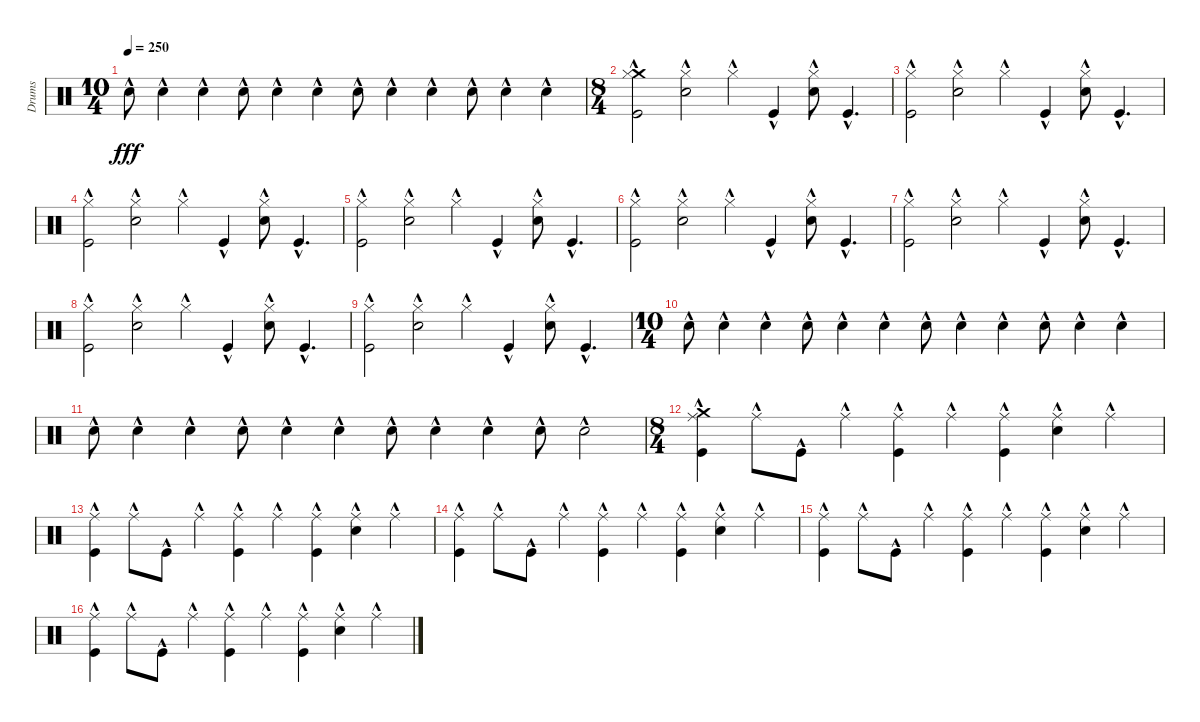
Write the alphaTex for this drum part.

\track ("Drums" "Drums") {instrument percussion}
\staff {score}
\articulation defaults
\ts (10 4)
\tempo 250
\clef neutral
\ks c "Snare (hit) 2"{hac}.8{dy fff} "Snare (hit) 2"{hac}.4 "Snare (hit) 2"{hac}.4 "Snare (hit) 2"{hac}.8 "Snare (hit) 2"{hac}.4 "Snare (hit) 2"{hac}.4 "Snare (hit) 2"{hac}.8 "Snare (hit) 2"{hac}.4 "Snare (hit) 2"{hac}.4 "Snare (hit) 2"{hac}.8 "Snare (hit) 2"{hac}.4 "Snare (hit) 2"{hac}.4
|
\ts (8 4)
("Crash medium (hit)"{hac} "Hi-Hat (closed)"{hac} "Kick (hit)"{hac}).2 ("Hi-Hat (closed)"{hac} "Snare (hit) 2"{hac}).2 "Hi-Hat (closed)"{hac}.4 "Kick (hit)"{hac}.4 ("Hi-Hat (closed)"{hac} "Snare (hit) 2"{hac}).8 "Kick (hit)"{hac}.4{d} |
("Hi-Hat (closed)"{hac} "Kick (hit)"{hac}).2 ("Hi-Hat (closed)"{hac} "Snare (hit) 2"{hac}).2 "Hi-Hat (closed)"{hac}.4 "Kick (hit)"{hac}.4 ("Hi-Hat (closed)"{hac} "Snare (hit) 2"{hac}).8 "Kick (hit)"{hac}.4{d} |
("Hi-Hat (closed)"{hac} "Kick (hit)"{hac}).2 ("Hi-Hat (closed)"{hac} "Snare (hit) 2"{hac}).2 "Hi-Hat (closed)"{hac}.4 "Kick (hit)"{hac}.4 ("Hi-Hat (closed)"{hac} "Snare (hit) 2"{hac}).8 "Kick (hit)"{hac}.4{d} |
("Hi-Hat (closed)"{hac} "Kick (hit)"{hac}).2 ("Hi-Hat (closed)"{hac} "Snare (hit) 2"{hac}).2 "Hi-Hat (closed)"{hac}.4 "Kick (hit)"{hac}.4 ("Hi-Hat (closed)"{hac} "Snare (hit) 2"{hac}).8 "Kick (hit)"{hac}.4{d} |
("Hi-Hat (closed)"{hac} "Kick (hit)"{hac}).2 ("Hi-Hat (closed)"{hac} "Snare (hit) 2"{hac}).2 "Hi-Hat (closed)"{hac}.4 "Kick (hit)"{hac}.4 ("Hi-Hat (closed)"{hac} "Snare (hit) 2"{hac}).8 "Kick (hit)"{hac}.4{d} |
("Hi-Hat (closed)"{hac} "Kick (hit)"{hac}).2 ("Hi-Hat (closed)"{hac} "Snare (hit) 2"{hac}).2 "Hi-Hat (closed)"{hac}.4 "Kick (hit)"{hac}.4 ("Hi-Hat (closed)"{hac} "Snare (hit) 2"{hac}).8 "Kick (hit)"{hac}.4{d} |
("Hi-Hat (closed)"{hac} "Kick (hit)"{hac}).2 ("Hi-Hat (closed)"{hac} "Snare (hit) 2"{hac}).2 "Hi-Hat (closed)"{hac}.4 "Kick (hit)"{hac}.4 ("Hi-Hat (closed)"{hac} "Snare (hit) 2"{hac}).8 "Kick (hit)"{hac}.4{d} |
("Hi-Hat (closed)"{hac} "Kick (hit)"{hac}).2 ("Hi-Hat (closed)"{hac} "Snare (hit) 2"{hac}).2 "Hi-Hat (closed)"{hac}.4 "Kick (hit)"{hac}.4 ("Hi-Hat (closed)"{hac} "Snare (hit) 2"{hac}).8 "Kick (hit)"{hac}.4{d} |
\ts (10 4)
"Snare (hit) 2"{hac}.8 "Snare (hit) 2"{hac}.4 "Snare (hit) 2"{hac}.4 "Snare (hit) 2"{hac}.8 "Snare (hit) 2"{hac}.4 "Snare (hit) 2"{hac}.4 "Snare (hit) 2"{hac}.8 "Snare (hit) 2"{hac}.4 "Snare (hit) 2"{hac}.4 "Snare (hit) 2"{hac}.8 "Snare (hit) 2"{hac}.4 "Snare (hit) 2"{hac}.4 |
"Snare (hit) 2"{hac}.8 "Snare (hit) 2"{hac}.4 "Snare (hit) 2"{hac}.4 "Snare (hit) 2"{hac}.8 "Snare (hit) 2"{hac}.4 "Snare (hit) 2"{hac}.4 "Snare (hit) 2"{hac}.8 "Snare (hit) 2"{hac}.4 "Snare (hit) 2"{hac}.4 "Snare (hit) 2"{hac}.8 "Snare (hit) 2"{hac}.2 |
\ts (8 4)
("Crash medium (hit)"{hac} "Ride (middle)"{hac} "Kick (hit)"{hac}).4 "Ride (middle)"{hac}.8 "Kick (hit)"{hac}.8 "Ride (middle)"{hac}.4 ("Ride (middle)"{hac} "Kick (hit)"{hac}).4 "Ride (middle)"{hac}.4 ("Ride (middle)"{hac} "Kick (hit)"{hac}).4 ("Ride (middle)"{hac} "Snare (hit) 2"{hac}).4 "Ride (middle)"{hac}.4 |
("Ride (middle)"{hac} "Kick (hit)"{hac}).4 "Ride (middle)"{hac}.8 "Kick (hit)"{hac}.8 "Ride (middle)"{hac}.4 ("Ride (middle)"{hac} "Kick (hit)"{hac}).4 "Ride (middle)"{hac}.4 ("Ride (middle)"{hac} "Kick (hit)"{hac}).4 ("Ride (middle)"{hac} "Snare (hit) 2"{hac}).4 "Ride (middle)"{hac}.4 |
("Ride (middle)"{hac} "Kick (hit)"{hac}).4 "Ride (middle)"{hac}.8 "Kick (hit)"{hac}.8 "Ride (middle)"{hac}.4 ("Ride (middle)"{hac} "Kick (hit)"{hac}).4 "Ride (middle)"{hac}.4 ("Ride (middle)"{hac} "Kick (hit)"{hac}).4 ("Ride (middle)"{hac} "Snare (hit) 2"{hac}).4 "Ride (middle)"{hac}.4 |
("Ride (middle)"{hac} "Kick (hit)"{hac}).4 "Ride (middle)"{hac}.8 "Kick (hit)"{hac}.8 "Ride (middle)"{hac}.4 ("Ride (middle)"{hac} "Kick (hit)"{hac}).4 "Ride (middle)"{hac}.4 ("Ride (middle)"{hac} "Kick (hit)"{hac}).4 ("Ride (middle)"{hac} "Snare (hit) 2"{hac}).4 "Ride (middle)"{hac}.4 |
("Ride (middle)"{hac} "Kick (hit)"{hac}).4 "Ride (middle)"{hac}.8 "Kick (hit)"{hac}.8 "Ride (middle)"{hac}.4 ("Ride (middle)"{hac} "Kick (hit)"{hac}).4 "Ride (middle)"{hac}.4 ("Ride (middle)"{hac} "Kick (hit)"{hac}).4 ("Ride (middle)"{hac} "Snare (hit) 2"{hac}).4 "Ride (middle)"{hac}.4
